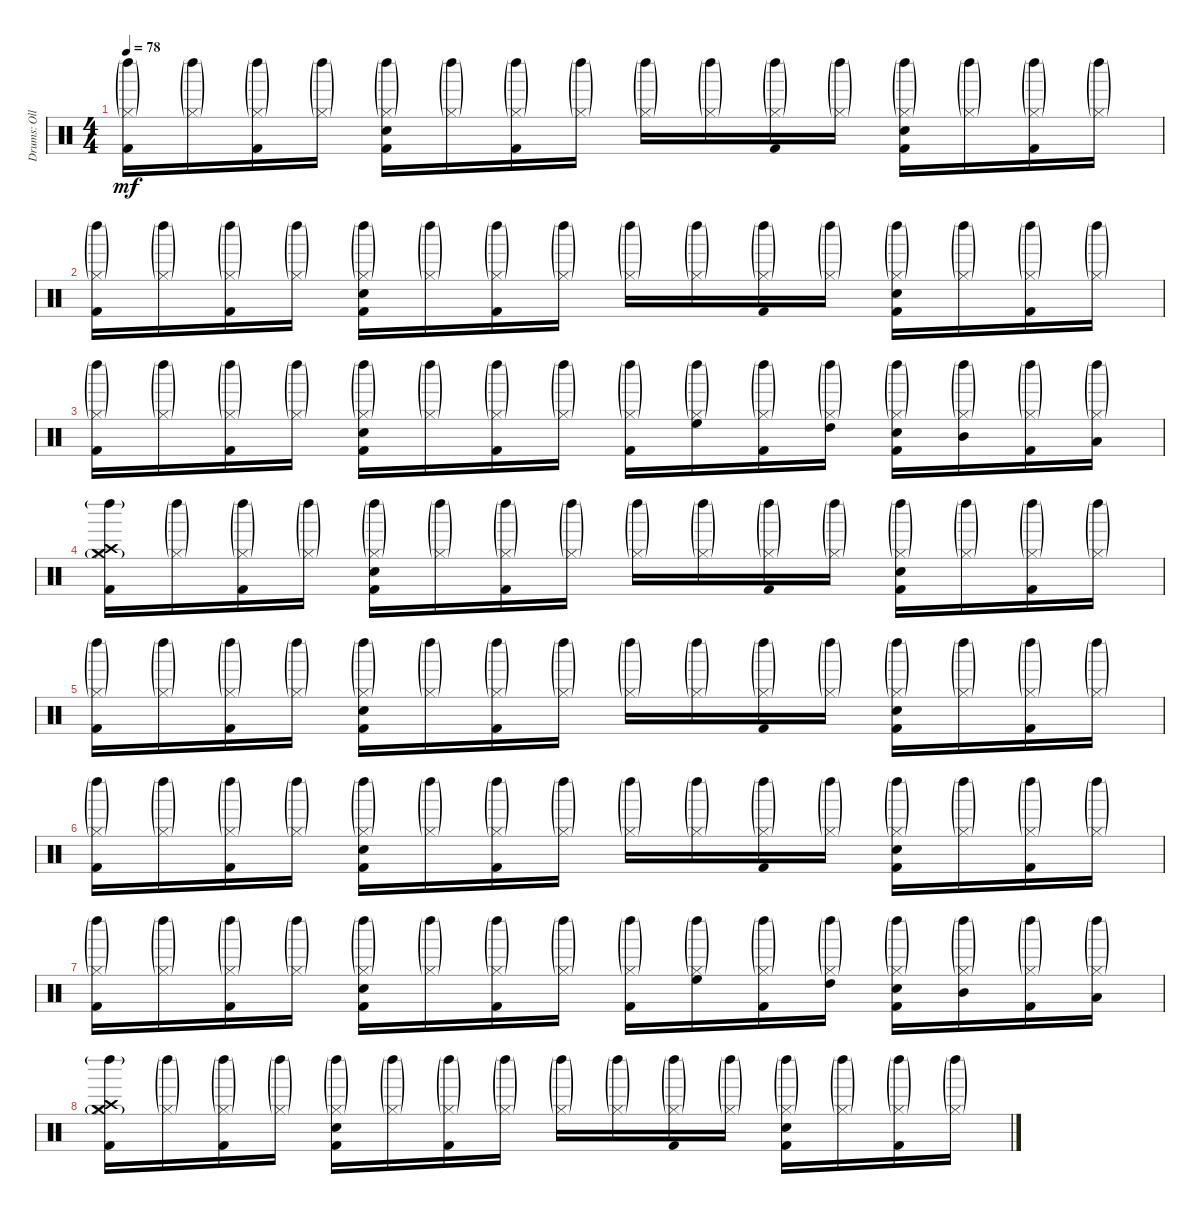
\track ("Drums: Olle Romeo" "Drums: Oll") {instrument percussion}
\staff {score}
\articulation defaults
\ts (4 4)
\tempo 78
\clef neutral
\ks c
("Hi-Hat (closed)"{g} "Kick (hit) 2" "Left Maraca (hit)"{g}).16{dy mf} ("Hi-Hat (closed)"{g} "Left Maraca (hit)"{g}).16 ("Hi-Hat (closed)"{g} "Kick (hit) 2" "Left Maraca (hit)"{g}).16 ("Hi-Hat (closed)"{g} "Left Maraca (hit)"{g}).16 ("Hi-Hat (closed)"{g} "Snare (hit) 2" "Kick (hit) 2" "Left Maraca (hit)"{g}).16 ("Hi-Hat (closed)"{g} "Left Maraca (hit)"{g}).16 ("Hi-Hat (closed)"{g} "Kick (hit) 2" "Left Maraca (hit)"{g}).16 ("Hi-Hat (closed)"{g} "Left Maraca (hit)"{g}).16 ("Hi-Hat (closed)"{g} "Left Maraca (hit)"{g}).16 ("Hi-Hat (closed)"{g} "Left Maraca (hit)"{g}).16 ("Hi-Hat (closed)"{g} "Kick (hit) 2" "Left Maraca (hit)"{g}).16 ("Hi-Hat (closed)"{g} "Left Maraca (hit)"{g}).16 ("Hi-Hat (closed)"{g} "Snare (hit) 2" "Kick (hit) 2" "Left Maraca (hit)"{g}).16 ("Hi-Hat (closed)"{g} "Left Maraca (hit)"{g}).16 ("Hi-Hat (closed)"{g} "Kick (hit) 2" "Left Maraca (hit)"{g}).16 ("Hi-Hat (closed)"{g} "Left Maraca (hit)"{g}).16 |
("Hi-Hat (closed)"{g} "Kick (hit) 2" "Left Maraca (hit)"{g}).16 ("Hi-Hat (closed)"{g} "Left Maraca (hit)"{g}).16 ("Hi-Hat (closed)"{g} "Kick (hit) 2" "Left Maraca (hit)"{g}).16 ("Hi-Hat (closed)"{g} "Left Maraca (hit)"{g}).16 ("Hi-Hat (closed)"{g} "Snare (hit) 2" "Kick (hit) 2" "Left Maraca (hit)"{g}).16 ("Hi-Hat (closed)"{g} "Left Maraca (hit)"{g}).16 ("Hi-Hat (closed)"{g} "Kick (hit) 2" "Left Maraca (hit)"{g}).16 ("Hi-Hat (closed)"{g} "Left Maraca (hit)"{g}).16 ("Hi-Hat (closed)"{g} "Left Maraca (hit)"{g}).16 ("Hi-Hat (closed)"{g} "Left Maraca (hit)"{g}).16 ("Hi-Hat (closed)"{g} "Kick (hit) 2" "Left Maraca (hit)"{g}).16 ("Hi-Hat (closed)"{g} "Left Maraca (hit)"{g}).16 ("Hi-Hat (closed)"{g} "Snare (hit) 2" "Kick (hit) 2" "Left Maraca (hit)"{g}).16 ("Hi-Hat (closed)"{g} "Left Maraca (hit)"{g}).16 ("Hi-Hat (closed)"{g} "Kick (hit) 2" "Left Maraca (hit)"{g}).16 ("Hi-Hat (closed)"{g} "Left Maraca (hit)"{g}).16 |
("Hi-Hat (closed)"{g} "Kick (hit) 2" "Left Maraca (hit)"{g}).16 ("Hi-Hat (closed)"{g} "Left Maraca (hit)"{g}).16 ("Hi-Hat (closed)"{g} "Kick (hit) 2" "Left Maraca (hit)"{g}).16 ("Hi-Hat (closed)"{g} "Left Maraca (hit)"{g}).16 ("Hi-Hat (closed)"{g} "Snare (hit) 2" "Kick (hit) 2" "Left Maraca (hit)"{g}).16 ("Hi-Hat (closed)"{g} "Left Maraca (hit)"{g}).16 ("Hi-Hat (closed)"{g} "Kick (hit) 2" "Left Maraca (hit)"{g}).16 ("Hi-Hat (closed)"{g} "Left Maraca (hit)"{g}).16 ("Hi-Hat (closed)"{g} "Kick (hit) 2" "Left Maraca (hit)"{g}).16 ("Hi-Hat (closed)"{g} "High Floor Tom (hit)" "Left Maraca (hit)"{g}).16 ("Hi-Hat (closed)"{g} "Kick (hit) 2" "Left Maraca (hit)"{g}).16 ("Hi-Hat (closed)"{g} "High Tom (hit)" "Left Maraca (hit)"{g}).16 ("Hi-Hat (closed)"{g} "Snare (hit) 2" "Kick (hit) 2" "Left Maraca (hit)"{g}).16 ("Hi-Hat (closed)"{g} "Mid Tom (hit)" "Left Maraca (hit)"{g}).16 ("Hi-Hat (closed)"{g} "Kick (hit) 2" "Left Maraca (hit)"{g}).16 ("Hi-Hat (closed)"{g} "Low Tom (hit)" "Left Maraca (hit)"{g}).16 |
("Crash medium (hit)" "Hi-Hat (closed)"{g} "Crash high (hit)" "Kick (hit) 2" "Left Maraca (hit)"{g}).16 ("Hi-Hat (closed)"{g} "Left Maraca (hit)"{g}).16 ("Hi-Hat (closed)"{g} "Kick (hit) 2" "Left Maraca (hit)"{g}).16 ("Hi-Hat (closed)"{g} "Left Maraca (hit)"{g}).16 ("Hi-Hat (closed)"{g} "Snare (hit) 2" "Kick (hit) 2" "Left Maraca (hit)"{g}).16 ("Hi-Hat (closed)"{g} "Left Maraca (hit)"{g}).16 ("Hi-Hat (closed)"{g} "Kick (hit) 2" "Left Maraca (hit)"{g}).16 ("Hi-Hat (closed)"{g} "Left Maraca (hit)"{g}).16 ("Hi-Hat (closed)"{g} "Left Maraca (hit)"{g}).16 ("Hi-Hat (closed)"{g} "Left Maraca (hit)"{g}).16 ("Hi-Hat (closed)"{g} "Kick (hit) 2" "Left Maraca (hit)"{g}).16 ("Hi-Hat (closed)"{g} "Left Maraca (hit)"{g}).16 ("Hi-Hat (closed)"{g} "Snare (hit) 2" "Kick (hit) 2" "Left Maraca (hit)"{g}).16 ("Hi-Hat (closed)"{g} "Left Maraca (hit)"{g}).16 ("Hi-Hat (closed)"{g} "Kick (hit) 2" "Left Maraca (hit)"{g}).16 ("Hi-Hat (closed)"{g} "Left Maraca (hit)"{g}).16 |
("Hi-Hat (closed)"{g} "Kick (hit) 2" "Left Maraca (hit)"{g}).16 ("Hi-Hat (closed)"{g} "Left Maraca (hit)"{g}).16 ("Hi-Hat (closed)"{g} "Kick (hit) 2" "Left Maraca (hit)"{g}).16 ("Hi-Hat (closed)"{g} "Left Maraca (hit)"{g}).16 ("Hi-Hat (closed)"{g} "Snare (hit) 2" "Kick (hit) 2" "Left Maraca (hit)"{g}).16 ("Hi-Hat (closed)"{g} "Left Maraca (hit)"{g}).16 ("Hi-Hat (closed)"{g} "Kick (hit) 2" "Left Maraca (hit)"{g}).16 ("Hi-Hat (closed)"{g} "Left Maraca (hit)"{g}).16 ("Hi-Hat (closed)"{g} "Left Maraca (hit)"{g}).16 ("Hi-Hat (closed)"{g} "Left Maraca (hit)"{g}).16 ("Hi-Hat (closed)"{g} "Kick (hit) 2" "Left Maraca (hit)"{g}).16 ("Hi-Hat (closed)"{g} "Left Maraca (hit)"{g}).16 ("Hi-Hat (closed)"{g} "Snare (hit) 2" "Kick (hit) 2" "Left Maraca (hit)"{g}).16 ("Hi-Hat (closed)"{g} "Left Maraca (hit)"{g}).16 ("Hi-Hat (closed)"{g} "Kick (hit) 2" "Left Maraca (hit)"{g}).16 ("Hi-Hat (closed)"{g} "Left Maraca (hit)"{g}).16 |
("Hi-Hat (closed)"{g} "Kick (hit) 2" "Left Maraca (hit)"{g}).16 ("Hi-Hat (closed)"{g} "Left Maraca (hit)"{g}).16 ("Hi-Hat (closed)"{g} "Kick (hit) 2" "Left Maraca (hit)"{g}).16 ("Hi-Hat (closed)"{g} "Left Maraca (hit)"{g}).16 ("Hi-Hat (closed)"{g} "Snare (hit) 2" "Kick (hit) 2" "Left Maraca (hit)"{g}).16 ("Hi-Hat (closed)"{g} "Left Maraca (hit)"{g}).16 ("Hi-Hat (closed)"{g} "Kick (hit) 2" "Left Maraca (hit)"{g}).16 ("Hi-Hat (closed)"{g} "Left Maraca (hit)"{g}).16 ("Hi-Hat (closed)"{g} "Left Maraca (hit)"{g}).16 ("Hi-Hat (closed)"{g} "Left Maraca (hit)"{g}).16 ("Hi-Hat (closed)"{g} "Kick (hit) 2" "Left Maraca (hit)"{g}).16 ("Hi-Hat (closed)"{g} "Left Maraca (hit)"{g}).16 ("Hi-Hat (closed)"{g} "Snare (hit) 2" "Kick (hit) 2" "Left Maraca (hit)"{g}).16 ("Hi-Hat (closed)"{g} "Left Maraca (hit)"{g}).16 ("Hi-Hat (closed)"{g} "Kick (hit) 2" "Left Maraca (hit)"{g}).16 ("Hi-Hat (closed)"{g} "Left Maraca (hit)"{g}).16 |
("Hi-Hat (closed)"{g} "Kick (hit) 2" "Left Maraca (hit)"{g}).16 ("Hi-Hat (closed)"{g} "Left Maraca (hit)"{g}).16 ("Hi-Hat (closed)"{g} "Kick (hit) 2" "Left Maraca (hit)"{g}).16 ("Hi-Hat (closed)"{g} "Left Maraca (hit)"{g}).16 ("Hi-Hat (closed)"{g} "Snare (hit) 2" "Kick (hit) 2" "Left Maraca (hit)"{g}).16 ("Hi-Hat (closed)"{g} "Left Maraca (hit)"{g}).16 ("Hi-Hat (closed)"{g} "Kick (hit) 2" "Left Maraca (hit)"{g}).16 ("Hi-Hat (closed)"{g} "Left Maraca (hit)"{g}).16 ("Hi-Hat (closed)"{g} "Kick (hit) 2" "Left Maraca (hit)"{g}).16 ("Hi-Hat (closed)"{g} "High Floor Tom (hit)" "Left Maraca (hit)"{g}).16 ("Hi-Hat (closed)"{g} "Kick (hit) 2" "Left Maraca (hit)"{g}).16 ("Hi-Hat (closed)"{g} "High Tom (hit)" "Left Maraca (hit)"{g}).16 ("Hi-Hat (closed)"{g} "Snare (hit) 2" "Kick (hit) 2" "Left Maraca (hit)"{g}).16 ("Hi-Hat (closed)"{g} "Mid Tom (hit)" "Left Maraca (hit)"{g}).16 ("Hi-Hat (closed)"{g} "Kick (hit) 2" "Left Maraca (hit)"{g}).16 ("Hi-Hat (closed)"{g} "Low Tom (hit)" "Left Maraca (hit)"{g}).16 |
("Crash medium (hit)" "Hi-Hat (closed)"{g} "Crash high (hit)" "Kick (hit) 2" "Left Maraca (hit)"{g}).16 ("Hi-Hat (closed)"{g} "Left Maraca (hit)"{g}).16 ("Hi-Hat (closed)"{g} "Kick (hit) 2" "Left Maraca (hit)"{g}).16 ("Hi-Hat (closed)"{g} "Left Maraca (hit)"{g}).16 ("Hi-Hat (closed)"{g} "Snare (hit) 2" "Kick (hit) 2" "Left Maraca (hit)"{g}).16 ("Hi-Hat (closed)"{g} "Left Maraca (hit)"{g}).16 ("Hi-Hat (closed)"{g} "Kick (hit) 2" "Left Maraca (hit)"{g}).16 ("Hi-Hat (closed)"{g} "Left Maraca (hit)"{g}).16 ("Hi-Hat (closed)"{g} "Left Maraca (hit)"{g}).16 ("Hi-Hat (closed)"{g} "Left Maraca (hit)"{g}).16 ("Hi-Hat (closed)"{g} "Kick (hit) 2" "Left Maraca (hit)"{g}).16 ("Hi-Hat (closed)"{g} "Left Maraca (hit)"{g}).16 ("Hi-Hat (closed)"{g} "Snare (hit) 2" "Kick (hit) 2" "Left Maraca (hit)"{g}).16 ("Hi-Hat (closed)"{g} "Left Maraca (hit)"{g}).16 ("Hi-Hat (closed)"{g} "Kick (hit) 2" "Left Maraca (hit)"{g}).16 ("Hi-Hat (closed)"{g} "Left Maraca (hit)"{g}).16
